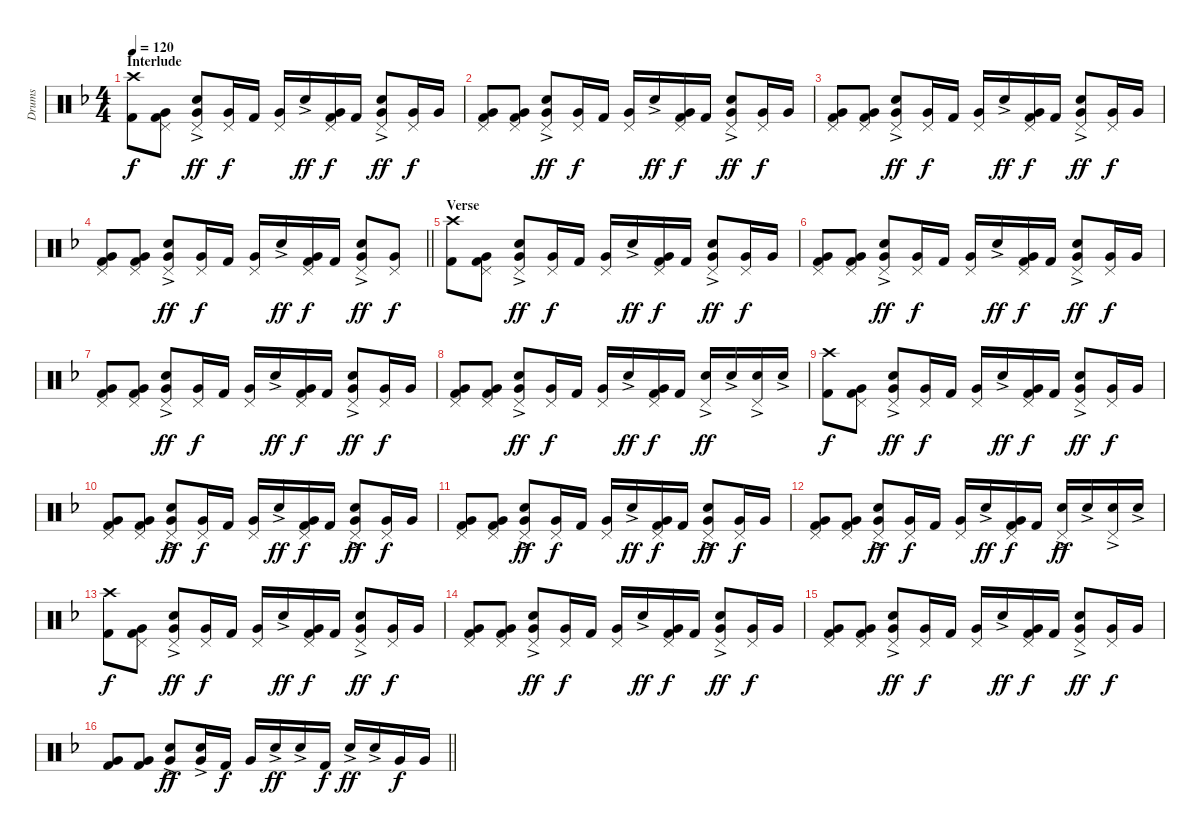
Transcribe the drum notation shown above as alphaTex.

\track ("Drums" "Drums") {instrument percussion}
\staff {score}
\articulation defaults
\ts (4 4)
\section ("" "Interlude")
\tempo 120
\clef neutral
\ks f
("Crash high (hit)" "Kick (hit) 2").8{dy f} ("Pedal Hi-Hat (hit)" "Very Low Tom (hit)" "Kick (hit) 2").8 ("Pedal Hi-Hat (hit)" "Electric Snare (hit)"{ac} "Very Low Tom (hit)").8{dy ff} ("Pedal Hi-Hat (hit)" "Very Low Tom (hit)").16{dy f} "Kick (hit) 2".16 ("Pedal Hi-Hat (hit)" "Very Low Tom (hit)").16 "Electric Snare (hit)"{ac}.16{dy ff} ("Pedal Hi-Hat (hit)" "Very Low Tom (hit)" "Kick (hit) 2").16{dy f} "Kick (hit) 2".16 ("Pedal Hi-Hat (hit)" "Electric Snare (hit)"{ac} "Very Low Tom (hit)").8{dy ff} ("Pedal Hi-Hat (hit)" "Very Low Tom (hit)").16{dy f} "Very Low Tom (hit)".16 |
("Pedal Hi-Hat (hit)" "Very Low Tom (hit)" "Kick (hit) 2").8 ("Pedal Hi-Hat (hit)" "Very Low Tom (hit)" "Kick (hit) 2").8 ("Pedal Hi-Hat (hit)" "Electric Snare (hit)"{ac} "Very Low Tom (hit)").8{dy ff} ("Pedal Hi-Hat (hit)" "Very Low Tom (hit)").16{dy f} "Kick (hit) 2".16 ("Pedal Hi-Hat (hit)" "Very Low Tom (hit)").16 "Electric Snare (hit)"{ac}.16{dy ff} ("Pedal Hi-Hat (hit)" "Very Low Tom (hit)" "Kick (hit) 2").16{dy f} "Kick (hit) 2".16 ("Pedal Hi-Hat (hit)" "Electric Snare (hit)"{ac} "Very Low Tom (hit)").8{dy ff} ("Pedal Hi-Hat (hit)" "Very Low Tom (hit)").16{dy f} "Very Low Tom (hit)".16 |
("Pedal Hi-Hat (hit)" "Very Low Tom (hit)" "Kick (hit) 2").8 ("Pedal Hi-Hat (hit)" "Very Low Tom (hit)" "Kick (hit) 2").8 ("Pedal Hi-Hat (hit)" "Electric Snare (hit)"{ac} "Very Low Tom (hit)").8{dy ff} ("Pedal Hi-Hat (hit)" "Very Low Tom (hit)").16{dy f} "Kick (hit) 2".16 ("Pedal Hi-Hat (hit)" "Very Low Tom (hit)").16 "Electric Snare (hit)"{ac}.16{dy ff} ("Pedal Hi-Hat (hit)" "Very Low Tom (hit)" "Kick (hit) 2").16{dy f} "Kick (hit) 2".16 ("Pedal Hi-Hat (hit)" "Electric Snare (hit)"{ac} "Very Low Tom (hit)").8{dy ff} ("Pedal Hi-Hat (hit)" "Very Low Tom (hit)").16{dy f} "Very Low Tom (hit)".16 |
\barLineRight lightlight
("Pedal Hi-Hat (hit)" "Very Low Tom (hit)" "Kick (hit) 2").8 ("Pedal Hi-Hat (hit)" "Very Low Tom (hit)" "Kick (hit) 2").8 ("Pedal Hi-Hat (hit)" "Electric Snare (hit)"{ac} "Very Low Tom (hit)").8{dy ff} ("Pedal Hi-Hat (hit)" "Very Low Tom (hit)").16{dy f} "Kick (hit) 2".16 ("Pedal Hi-Hat (hit)" "Very Low Tom (hit)").16 "Electric Snare (hit)"{ac}.16{dy ff} ("Pedal Hi-Hat (hit)" "Very Low Tom (hit)" "Kick (hit) 2").16{dy f} "Kick (hit) 2".16 ("Pedal Hi-Hat (hit)" "Electric Snare (hit)"{ac} "Very Low Tom (hit)").8{dy ff} ("Pedal Hi-Hat (hit)" "Very Low Tom (hit)").8{dy f} |
\section ("" "Verse")
("Crash high (hit)" "Kick (hit) 2").8 ("Pedal Hi-Hat (hit)" "Very Low Tom (hit)" "Kick (hit) 2").8 ("Pedal Hi-Hat (hit)" "Electric Snare (hit)"{ac} "Very Low Tom (hit)").8{dy ff} ("Pedal Hi-Hat (hit)" "Very Low Tom (hit)").16{dy f} "Kick (hit) 2".16 ("Pedal Hi-Hat (hit)" "Very Low Tom (hit)").16 "Electric Snare (hit)"{ac}.16{dy ff} ("Pedal Hi-Hat (hit)" "Very Low Tom (hit)" "Kick (hit) 2").16{dy f} "Kick (hit) 2".16 ("Pedal Hi-Hat (hit)" "Electric Snare (hit)"{ac} "Very Low Tom (hit)").8{dy ff} ("Pedal Hi-Hat (hit)" "Very Low Tom (hit)").16{dy f} "Very Low Tom (hit)".16 |
("Pedal Hi-Hat (hit)" "Very Low Tom (hit)" "Kick (hit) 2").8 ("Pedal Hi-Hat (hit)" "Very Low Tom (hit)" "Kick (hit) 2").8 ("Pedal Hi-Hat (hit)" "Electric Snare (hit)"{ac} "Very Low Tom (hit)").8{dy ff} ("Pedal Hi-Hat (hit)" "Very Low Tom (hit)").16{dy f} "Kick (hit) 2".16 ("Pedal Hi-Hat (hit)" "Very Low Tom (hit)").16 "Electric Snare (hit)"{ac}.16{dy ff} ("Pedal Hi-Hat (hit)" "Very Low Tom (hit)" "Kick (hit) 2").16{dy f} "Kick (hit) 2".16 ("Pedal Hi-Hat (hit)" "Electric Snare (hit)"{ac} "Very Low Tom (hit)").8{dy ff} ("Pedal Hi-Hat (hit)" "Very Low Tom (hit)").16{dy f} "Very Low Tom (hit)".16 |
("Pedal Hi-Hat (hit)" "Very Low Tom (hit)" "Kick (hit) 2").8 ("Pedal Hi-Hat (hit)" "Very Low Tom (hit)" "Kick (hit) 2").8 ("Pedal Hi-Hat (hit)" "Electric Snare (hit)"{ac} "Very Low Tom (hit)").8{dy ff} ("Pedal Hi-Hat (hit)" "Very Low Tom (hit)").16{dy f} "Kick (hit) 2".16 ("Pedal Hi-Hat (hit)" "Very Low Tom (hit)").16 "Electric Snare (hit)"{ac}.16{dy ff} ("Pedal Hi-Hat (hit)" "Very Low Tom (hit)" "Kick (hit) 2").16{dy f} "Kick (hit) 2".16 ("Pedal Hi-Hat (hit)" "Electric Snare (hit)"{ac} "Very Low Tom (hit)").8{dy ff} ("Pedal Hi-Hat (hit)" "Very Low Tom (hit)").16{dy f} "Very Low Tom (hit)".16 |
("Pedal Hi-Hat (hit)" "Very Low Tom (hit)" "Kick (hit) 2").8 ("Pedal Hi-Hat (hit)" "Very Low Tom (hit)" "Kick (hit) 2").8 ("Pedal Hi-Hat (hit)" "Electric Snare (hit)"{ac} "Very Low Tom (hit)").8{dy ff} ("Pedal Hi-Hat (hit)" "Very Low Tom (hit)").16{dy f} "Kick (hit) 2".16 ("Pedal Hi-Hat (hit)" "Very Low Tom (hit)").16 "Electric Snare (hit)"{ac}.16{dy ff} ("Pedal Hi-Hat (hit)" "Very Low Tom (hit)" "Kick (hit) 2").16{dy f} "Kick (hit) 2".16 ("Pedal Hi-Hat (hit)" "Electric Snare (hit)"{ac}).16{dy ff} "Electric Snare (hit)"{ac}.16 ("Pedal Hi-Hat (hit)" "Electric Snare (hit)"{ac}).16 "Electric Snare (hit)"{ac}.16 |
("Crash high (hit)" "Kick (hit) 2").8{dy f} ("Pedal Hi-Hat (hit)" "Very Low Tom (hit)" "Kick (hit) 2").8 ("Pedal Hi-Hat (hit)" "Electric Snare (hit)"{ac} "Very Low Tom (hit)").8{dy ff} ("Pedal Hi-Hat (hit)" "Very Low Tom (hit)").16{dy f} "Kick (hit) 2".16 ("Pedal Hi-Hat (hit)" "Very Low Tom (hit)").16 "Electric Snare (hit)"{ac}.16{dy ff} ("Pedal Hi-Hat (hit)" "Very Low Tom (hit)" "Kick (hit) 2").16{dy f} "Kick (hit) 2".16 ("Pedal Hi-Hat (hit)" "Electric Snare (hit)"{ac} "Very Low Tom (hit)").8{dy ff} ("Pedal Hi-Hat (hit)" "Very Low Tom (hit)").16{dy f} "Very Low Tom (hit)".16 |
("Pedal Hi-Hat (hit)" "Very Low Tom (hit)" "Kick (hit) 2").8 ("Pedal Hi-Hat (hit)" "Very Low Tom (hit)" "Kick (hit) 2").8 ("Pedal Hi-Hat (hit)" "Electric Snare (hit)"{ac} "Very Low Tom (hit)").8{dy ff} ("Pedal Hi-Hat (hit)" "Very Low Tom (hit)").16{dy f} "Kick (hit) 2".16 ("Pedal Hi-Hat (hit)" "Very Low Tom (hit)").16 "Electric Snare (hit)"{ac}.16{dy ff} ("Pedal Hi-Hat (hit)" "Very Low Tom (hit)" "Kick (hit) 2").16{dy f} "Kick (hit) 2".16 ("Pedal Hi-Hat (hit)" "Electric Snare (hit)"{ac} "Very Low Tom (hit)").8{dy ff} ("Pedal Hi-Hat (hit)" "Very Low Tom (hit)").16{dy f} "Very Low Tom (hit)".16 |
("Pedal Hi-Hat (hit)" "Very Low Tom (hit)" "Kick (hit) 2").8 ("Pedal Hi-Hat (hit)" "Very Low Tom (hit)" "Kick (hit) 2").8 ("Pedal Hi-Hat (hit)" "Electric Snare (hit)"{ac} "Very Low Tom (hit)").8{dy ff} ("Pedal Hi-Hat (hit)" "Very Low Tom (hit)").16{dy f} "Kick (hit) 2".16 ("Pedal Hi-Hat (hit)" "Very Low Tom (hit)").16 "Electric Snare (hit)"{ac}.16{dy ff} ("Pedal Hi-Hat (hit)" "Very Low Tom (hit)" "Kick (hit) 2").16{dy f} "Kick (hit) 2".16 ("Pedal Hi-Hat (hit)" "Electric Snare (hit)"{ac} "Very Low Tom (hit)").8{dy ff} ("Pedal Hi-Hat (hit)" "Very Low Tom (hit)").16{dy f} "Very Low Tom (hit)".16 |
("Pedal Hi-Hat (hit)" "Very Low Tom (hit)" "Kick (hit) 2").8 ("Pedal Hi-Hat (hit)" "Very Low Tom (hit)" "Kick (hit) 2").8 ("Pedal Hi-Hat (hit)" "Electric Snare (hit)"{ac} "Very Low Tom (hit)").8{dy ff} ("Pedal Hi-Hat (hit)" "Very Low Tom (hit)").16{dy f} "Kick (hit) 2".16 ("Pedal Hi-Hat (hit)" "Very Low Tom (hit)").16 "Electric Snare (hit)"{ac}.16{dy ff} ("Pedal Hi-Hat (hit)" "Very Low Tom (hit)" "Kick (hit) 2").16{dy f} "Kick (hit) 2".16 ("Pedal Hi-Hat (hit)" "Electric Snare (hit)"{ac}).16{dy ff} "Electric Snare (hit)"{ac}.16 ("Pedal Hi-Hat (hit)" "Electric Snare (hit)"{ac}).16 "Electric Snare (hit)"{ac}.16 |
("Crash high (hit)" "Kick (hit) 2").8{dy f} ("Pedal Hi-Hat (hit)" "Very Low Tom (hit)" "Kick (hit) 2").8 ("Pedal Hi-Hat (hit)" "Electric Snare (hit)"{ac} "Very Low Tom (hit)").8{dy ff} ("Pedal Hi-Hat (hit)" "Very Low Tom (hit)").16{dy f} "Kick (hit) 2".16 ("Pedal Hi-Hat (hit)" "Very Low Tom (hit)").16 "Electric Snare (hit)"{ac}.16{dy ff} ("Pedal Hi-Hat (hit)" "Very Low Tom (hit)" "Kick (hit) 2").16{dy f} "Kick (hit) 2".16 ("Pedal Hi-Hat (hit)" "Electric Snare (hit)"{ac} "Very Low Tom (hit)").8{dy ff} ("Pedal Hi-Hat (hit)" "Very Low Tom (hit)").16{dy f} "Very Low Tom (hit)".16 |
("Pedal Hi-Hat (hit)" "Very Low Tom (hit)" "Kick (hit) 2").8 ("Pedal Hi-Hat (hit)" "Very Low Tom (hit)" "Kick (hit) 2").8 ("Pedal Hi-Hat (hit)" "Electric Snare (hit)"{ac} "Very Low Tom (hit)").8{dy ff} ("Pedal Hi-Hat (hit)" "Very Low Tom (hit)").16{dy f} "Kick (hit) 2".16 ("Pedal Hi-Hat (hit)" "Very Low Tom (hit)").16 "Electric Snare (hit)"{ac}.16{dy ff} ("Pedal Hi-Hat (hit)" "Very Low Tom (hit)" "Kick (hit) 2").16{dy f} "Kick (hit) 2".16 ("Pedal Hi-Hat (hit)" "Electric Snare (hit)"{ac} "Very Low Tom (hit)").8{dy ff} ("Pedal Hi-Hat (hit)" "Very Low Tom (hit)").16{dy f} "Very Low Tom (hit)".16 |
("Pedal Hi-Hat (hit)" "Very Low Tom (hit)" "Kick (hit) 2").8 ("Pedal Hi-Hat (hit)" "Very Low Tom (hit)" "Kick (hit) 2").8 ("Pedal Hi-Hat (hit)" "Electric Snare (hit)"{ac} "Very Low Tom (hit)").8{dy ff} ("Pedal Hi-Hat (hit)" "Very Low Tom (hit)").16{dy f} "Kick (hit) 2".16 ("Pedal Hi-Hat (hit)" "Very Low Tom (hit)").16 "Electric Snare (hit)"{ac}.16{dy ff} ("Pedal Hi-Hat (hit)" "Very Low Tom (hit)" "Kick (hit) 2").16{dy f} "Kick (hit) 2".16 ("Pedal Hi-Hat (hit)" "Electric Snare (hit)"{ac} "Very Low Tom (hit)").8{dy ff} ("Pedal Hi-Hat (hit)" "Very Low Tom (hit)").16{dy f} "Very Low Tom (hit)".16 |
\barLineRight lightlight
("Very Low Tom (hit)" "Kick (hit) 2").8 ("Very Low Tom (hit)" "Kick (hit) 2").8 ("Electric Snare (hit)"{ac} "Very Low Tom (hit)").8{dy ff} ("Electric Snare (hit)"{ac} "Very Low Tom (hit)").16 "Kick (hit) 2".16{dy f} "Very Low Tom (hit)".16 "Electric Snare (hit)"{ac}.16{dy ff} "Electric Snare (hit)"{ac}.16 "Kick (hit) 2".16{dy f} "Electric Snare (hit)"{ac}.16{dy ff} "Electric Snare (hit)"{ac}.16 "Very Low Tom (hit)".16{dy f} "Very Low Tom (hit)".16
